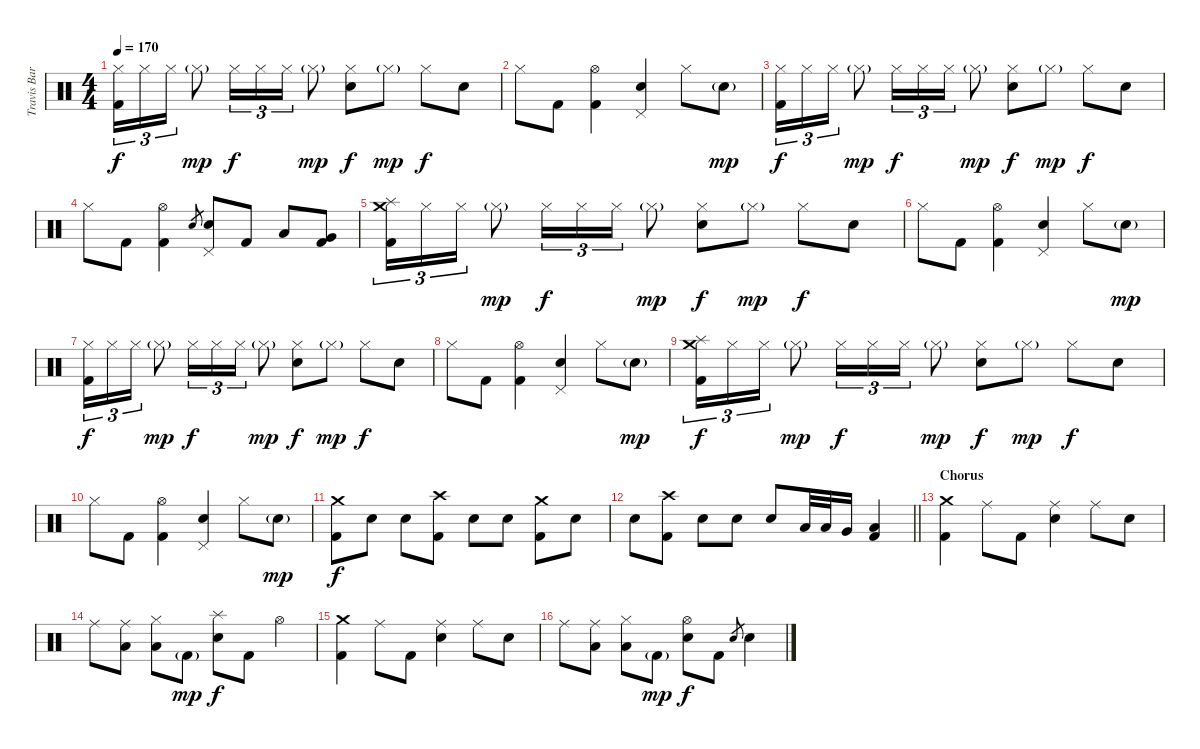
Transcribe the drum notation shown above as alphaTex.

\track ("Travis Barker - Drums" "Travis Bar") {instrument percussion}
\staff {score}
\articulation defaults
\ts (4 4)
\tempo 170
\clef neutral
\ks c
("Hi-Hat (closed)" "Kick (hit) 2").16{tu (3 2) dy f} "Hi-Hat (closed)".16{tu (3 2)} "Hi-Hat (closed)".16{tu (3 2)} "Hi-Hat (closed)"{g}.8{dy mp} "Hi-Hat (closed)".16{tu (3 2) dy f} "Hi-Hat (closed)".16{tu (3 2)} "Hi-Hat (closed)".16{tu (3 2)} "Hi-Hat (closed)"{g}.8{dy mp} ("Hi-Hat (closed)" "Electric Snare (hit)").8{dy f} "Hi-Hat (closed)"{g}.8{dy mp} "Hi-Hat (closed)".8{dy f} "Electric Snare (hit)".8 |
"Hi-Hat (closed)".8 "Kick (hit) 2".8 ("Hi-Hat (open)" "Kick (hit) 2").4 ("Pedal Hi-Hat (hit)" "Electric Snare (hit)").4 "Hi-Hat (closed)".8 "Electric Snare (hit)"{g}.8{dy mp} |
("Hi-Hat (closed)" "Kick (hit) 2").16{tu (3 2) dy f} "Hi-Hat (closed)".16{tu (3 2)} "Hi-Hat (closed)".16{tu (3 2)} "Hi-Hat (closed)"{g}.8{dy mp} "Hi-Hat (closed)".16{tu (3 2) dy f} "Hi-Hat (closed)".16{tu (3 2)} "Hi-Hat (closed)".16{tu (3 2)} "Hi-Hat (closed)"{g}.8{dy mp} ("Hi-Hat (closed)" "Electric Snare (hit)").8{dy f} "Hi-Hat (closed)"{g}.8{dy mp} "Hi-Hat (closed)".8{dy f} "Electric Snare (hit)".8 |
"Hi-Hat (closed)".8 "Kick (hit) 2".8 ("Hi-Hat (open)" "Kick (hit) 2").4 "Electric Snare (hit)".8{gr} ("Pedal Hi-Hat (hit)" "Electric Snare (hit)").8 "Kick (hit) 2".8 "Low Tom (hit)".8 ("Very Low Tom (hit)" "Kick (hit) 2").8 |
("Crash medium (hit)" "Splash (hit)" "Kick (hit) 2").16{tu (3 2)} "Hi-Hat (closed)".16{tu (3 2)} "Hi-Hat (closed)".16{tu (3 2)} "Hi-Hat (closed)"{g}.8{dy mp} "Hi-Hat (closed)".16{tu (3 2) dy f} "Hi-Hat (closed)".16{tu (3 2)} "Hi-Hat (closed)".16{tu (3 2)} "Hi-Hat (closed)"{g}.8{dy mp} ("Hi-Hat (closed)" "Electric Snare (hit)").8{dy f} "Hi-Hat (closed)"{g}.8{dy mp} "Hi-Hat (closed)".8{dy f} "Electric Snare (hit)".8 |
"Hi-Hat (closed)".8 "Kick (hit) 2".8 ("Hi-Hat (open)" "Kick (hit) 2").4 ("Pedal Hi-Hat (hit)" "Electric Snare (hit)").4 "Hi-Hat (closed)".8 "Electric Snare (hit)"{g}.8{dy mp} |
("Hi-Hat (closed)" "Kick (hit) 2").16{tu (3 2) dy f} "Hi-Hat (closed)".16{tu (3 2)} "Hi-Hat (closed)".16{tu (3 2)} "Hi-Hat (closed)"{g}.8{dy mp} "Hi-Hat (closed)".16{tu (3 2) dy f} "Hi-Hat (closed)".16{tu (3 2)} "Hi-Hat (closed)".16{tu (3 2)} "Hi-Hat (closed)"{g}.8{dy mp} ("Hi-Hat (closed)" "Electric Snare (hit)").8{dy f} "Hi-Hat (closed)"{g}.8{dy mp} "Hi-Hat (closed)".8{dy f} "Electric Snare (hit)".8 |
"Hi-Hat (closed)".8 "Kick (hit) 2".8 ("Hi-Hat (open)" "Kick (hit) 2").4 ("Pedal Hi-Hat (hit)" "Electric Snare (hit)").4 "Hi-Hat (closed)".8 "Electric Snare (hit)"{g}.8{dy mp} |
("Crash medium (hit)" "Splash (hit)" "Kick (hit) 2").16{tu (3 2) dy f} "Hi-Hat (closed)".16{tu (3 2)} "Hi-Hat (closed)".16{tu (3 2)} "Hi-Hat (closed)"{g}.8{dy mp} "Hi-Hat (closed)".16{tu (3 2) dy f} "Hi-Hat (closed)".16{tu (3 2)} "Hi-Hat (closed)".16{tu (3 2)} "Hi-Hat (closed)"{g}.8{dy mp} ("Hi-Hat (closed)" "Electric Snare (hit)").8{dy f} "Hi-Hat (closed)"{g}.8{dy mp} "Hi-Hat (closed)".8{dy f} "Electric Snare (hit)".8 |
"Hi-Hat (closed)".8 "Kick (hit) 2".8 ("Hi-Hat (open)" "Kick (hit) 2").4 ("Pedal Hi-Hat (hit)" "Electric Snare (hit)").4 "Hi-Hat (closed)".8 "Electric Snare (hit)"{g}.8{dy mp} |
("Crash medium (hit)" "Kick (hit) 2").8{dy f} "Electric Snare (hit)".8 "Electric Snare (hit)".8 ("Crash high (hit)" "Kick (hit) 2").8 "Electric Snare (hit)".8 "Electric Snare (hit)".8 ("Crash medium (hit)" "Kick (hit) 2").8 "Electric Snare (hit)".8 |
\barLineRight lightlight "Electric Snare (hit)".8
("Crash high (hit)" "Kick (hit) 2").8 "Electric Snare (hit)".8 "Electric Snare (hit)".8 "Electric Snare (hit)".8 "Low Tom (hit)".32 "Low Tom (hit)".32 "Very Low Tom (hit)".16 ("Low Floor Tom (hit)" "Kick (hit) 2").4 |
\section ("" "Chorus")
("Crash medium (hit)" "Kick (hit) 2").4 "Ride (middle)".8 "Kick (hit) 2".8 ("Ride (middle)" "Electric Snare (hit)").4 "Ride (middle)".8 "Electric Snare (hit)".8 |
"Ride (middle)".8 ("Ride (middle)" "Low Tom (hit)").8 ("Hi-Hat (closed)" "Low Tom (hit)").8 "Kick (hit) 2"{g}.8{dy mp} ("Splash (hit)" "Electric Snare (hit)").8{dy f} "Kick (hit) 2".8 "Hi-Hat (open)".4 |
("Crash medium (hit)" "Kick (hit) 2").4 "Ride (middle)".8 "Kick (hit) 2".8 ("Ride (middle)" "Electric Snare (hit)").4 "Ride (middle)".8 "Electric Snare (hit)".8 |
"Ride (middle)".8 ("Ride (middle)" "Low Tom (hit)").8 ("Hi-Hat (closed)" "Low Tom (hit)").8 "Kick (hit) 2"{g}.8{dy mp} ("Hi-Hat (open)" "Electric Snare (hit)").8{dy f} "Kick (hit) 2".8 "Electric Snare (hit)".8{gr} "Electric Snare (hit)".4
